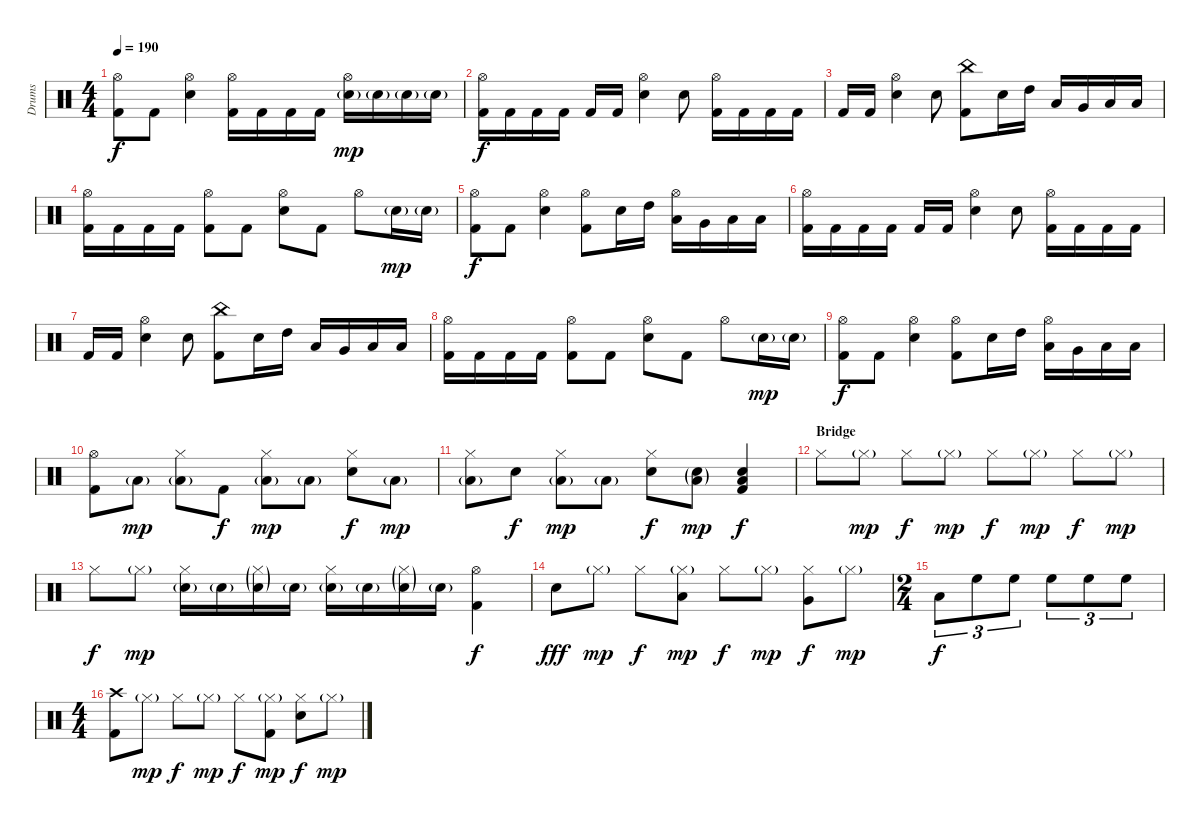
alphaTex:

\track ("Drums" "Drums") {instrument percussion}
\staff {score}
\articulation defaults
\ts (4 4)
\tempo 190
\clef neutral
\ks c
("Hi-Hat (open)" "Kick (hit) 2").8{dy f} "Kick (hit) 2".8 ("Hi-Hat (open)" "Snare (hit) 2").4 ("Hi-Hat (open)" "Kick (hit) 2").16 "Kick (hit) 2".16 "Kick (hit) 2".16 "Kick (hit) 2".16 ("Hi-Hat (open)" "Snare (hit) 2"{g}).16{dy mp} "Snare (hit) 2"{g}.16 "Snare (hit) 2"{g}.16 "Snare (hit) 2"{g}.16 |
("Hi-Hat (open)" "Kick (hit) 2").16{dy f} "Kick (hit) 2".16 "Kick (hit) 2".16 "Kick (hit) 2".16 "Kick (hit) 2".16 "Kick (hit) 2".16 ("Hi-Hat (open)" "Snare (hit) 2").4 "Snare (hit) 2".8 ("Hi-Hat (open)" "Kick (hit) 2").16 "Kick (hit) 2".16 "Kick (hit) 2".16 "Kick (hit) 2".16 |
"Kick (hit) 2".16 "Kick (hit) 2".16 ("Hi-Hat (open)" "Snare (hit) 2").4 "Snare (hit) 2".8 ("China (hit)" "Kick (hit) 2").8 "Snare (hit) 2".16 "High Tom (hit)".16 "Low Tom (hit)".16 "Very Low Tom (hit)".16 "Low Floor Tom (hit)".16 "Low Floor Tom (hit)".16 |
("Hi-Hat (open)" "Kick (hit) 2").16 "Kick (hit) 2".16 "Kick (hit) 2".16 "Kick (hit) 2".16 ("Hi-Hat (open)" "Kick (hit) 2").8 "Kick (hit) 2".8 ("Hi-Hat (open)" "Snare (hit) 2").8 "Kick (hit) 2".8 "Hi-Hat (open)".8 "Snare (hit) 2"{g}.16{dy mp} "Snare (hit) 2"{g}.16 |
("Hi-Hat (open)" "Kick (hit) 2").8{dy f} "Kick (hit) 2".8 ("Hi-Hat (open)" "Snare (hit) 2").4 ("Hi-Hat (open)" "Kick (hit) 2").8 "Snare (hit) 2".16 "High Tom (hit)".16 ("Hi-Hat (open)" "Low Tom (hit)").16 "Very Low Tom (hit)".16 "Low Floor Tom (hit)".16 "Low Floor Tom (hit)".16 |
("Hi-Hat (open)" "Kick (hit) 2").16 "Kick (hit) 2".16 "Kick (hit) 2".16 "Kick (hit) 2".16 "Kick (hit) 2".16 "Kick (hit) 2".16 ("Hi-Hat (open)" "Snare (hit) 2").4 "Snare (hit) 2".8 ("Hi-Hat (open)" "Kick (hit) 2").16 "Kick (hit) 2".16 "Kick (hit) 2".16 "Kick (hit) 2".16 |
"Kick (hit) 2".16 "Kick (hit) 2".16 ("Hi-Hat (open)" "Snare (hit) 2").4 "Snare (hit) 2".8 ("China (hit)" "Kick (hit) 2").8 "Snare (hit) 2".16 "High Tom (hit)".16 "Low Tom (hit)".16 "Very Low Tom (hit)".16 "Low Floor Tom (hit)".16 "Low Floor Tom (hit)".16 |
("Hi-Hat (open)" "Kick (hit) 2").16 "Kick (hit) 2".16 "Kick (hit) 2".16 "Kick (hit) 2".16 ("Hi-Hat (open)" "Kick (hit) 2").8 "Kick (hit) 2".8 ("Hi-Hat (open)" "Snare (hit) 2").8 "Kick (hit) 2".8 "Hi-Hat (open)".8 "Snare (hit) 2"{g}.16{dy mp} "Snare (hit) 2"{g}.16 |
("Hi-Hat (open)" "Kick (hit) 2").8{dy f} "Kick (hit) 2".8 ("Hi-Hat (open)" "Snare (hit) 2").4 ("Hi-Hat (open)" "Kick (hit) 2").8 "Snare (hit) 2".16 "High Tom (hit)".16 ("Hi-Hat (open)" "Low Tom (hit)").16 "Very Low Tom (hit)".16 "Low Floor Tom (hit)".16 "Low Floor Tom (hit)".16 |
("Hi-Hat (open)" "Kick (hit) 2").8 "Low Floor Tom (hit)"{g}.8{dy mp} ("Hi-Hat (closed)" "Low Floor Tom (hit)"{g}).8 "Kick (hit) 2".8{dy f} ("Hi-Hat (closed)" "Low Floor Tom (hit)"{g}).8{dy mp} "Low Floor Tom (hit)"{g}.8 ("Hi-Hat (closed)" "Snare (hit) 2").8{dy f} "Low Floor Tom (hit)"{g}.8{dy mp} |
("Hi-Hat (closed)" "Low Floor Tom (hit)"{g}).8 "Snare (hit) 2".8{dy f} ("Hi-Hat (closed)" "Low Floor Tom (hit)"{g}).8{dy mp} "Low Floor Tom (hit)"{g}.8 ("Hi-Hat (closed)" "Snare (hit) 2").8{dy f} ("Snare (hit) 2"{g} "Low Floor Tom (hit)"{g}).8{dy mp} ("Snare (hit) 2" "Low Floor Tom (hit)" "Kick (hit) 2").4{dy f} |
\section ("" "Bridge")
"Hi-Hat (closed)".8 "Hi-Hat (closed)"{g}.8{dy mp} "Hi-Hat (closed)".8{dy f} "Hi-Hat (closed)"{g}.8{dy mp} "Hi-Hat (closed)".8{dy f} "Hi-Hat (closed)"{g}.8{dy mp} "Hi-Hat (closed)".8{dy f} "Hi-Hat (closed)"{g}.8{dy mp} |
"Hi-Hat (closed)".8{dy f} "Hi-Hat (closed)"{g}.8{dy mp} ("Hi-Hat (closed)" "Snare (hit) 2"{g}).16 "Snare (hit) 2"{g}.16 ("Hi-Hat (closed)"{g} "Snare (hit) 2"{g}).16 "Snare (hit) 2"{g}.16 ("Hi-Hat (closed)" "Snare (hit) 2"{g}).16 "Snare (hit) 2"{g}.16 ("Hi-Hat (closed)"{g} "Snare (hit) 2"{g}).16 "Snare (hit) 2"{g}.16 ("Hi-Hat (open)" "Kick (hit) 2").4{dy f} |
"Snare (hit) 2".8{dy fff} "Hi-Hat (closed)"{g}.8{dy mp} "Hi-Hat (closed)".8{dy f} ("Hi-Hat (closed)"{g} "Low Tom (hit)").8{dy mp} "Hi-Hat (closed)".8{dy f} "Hi-Hat (closed)"{g}.8{dy mp} ("Hi-Hat (closed)" "Very Low Tom (hit)").8{dy f} "Hi-Hat (closed)"{g}.8{dy mp} |
\ts (2 4)
"Low Floor Tom (hit)".8{tu (3 2) dy f} "High Floor Tom (hit)".8{tu (3 2)} "High Floor Tom (hit)".8{tu (3 2)} "High Floor Tom (hit)".8{tu (3 2)} "High Floor Tom (hit)".8{tu (3 2)} "High Floor Tom (hit)".8{tu (3 2)} |
\ts (4 4)
("Crash high (hit)" "Kick (hit) 2").8 "Hi-Hat (closed)"{g}.8{dy mp} "Hi-Hat (closed)".8{dy f} "Hi-Hat (closed)"{g}.8{dy mp} "Hi-Hat (closed)".8{dy f} ("Hi-Hat (closed)"{g} "Kick (hit) 2").8{dy mp} ("Hi-Hat (closed)" "Snare (hit) 2").8{dy f} "Hi-Hat (closed)"{g}.8{dy mp}
